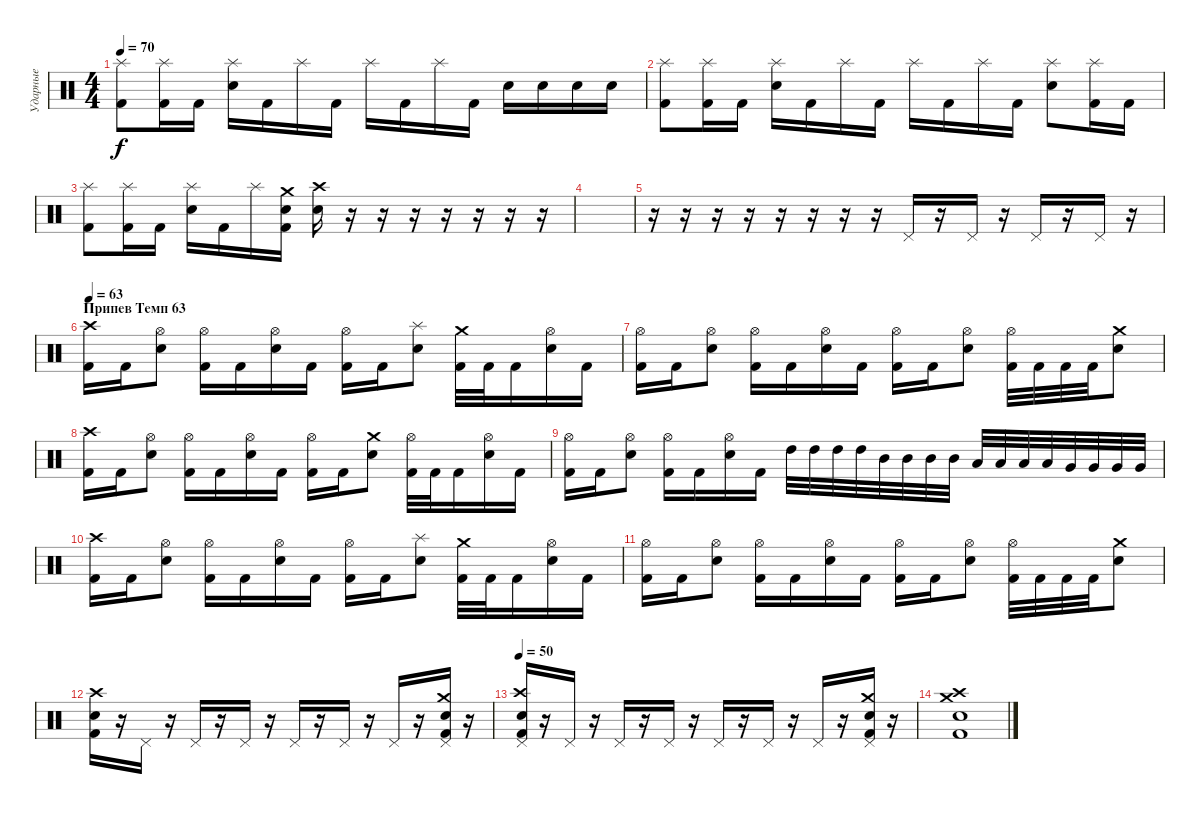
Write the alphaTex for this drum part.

\track ("Ударные" "Ударные") {instrument percussion}
\staff {score}
\articulation defaults
\ts (4 4)
\tempo 70
\clef neutral
\ks c
("Kick (hit) 2" "Splash (hit)").8{dy f} ("Kick (hit) 2" "Splash (hit)").16 "Kick (hit) 2".16 ("Snare (hit) 2" "Splash (hit)").16 "Kick (hit) 2".16 "Splash (hit)".16 "Kick (hit) 2".16 "Splash (hit)".16 "Kick (hit) 2".16 "Splash (hit)".16 "Kick (hit) 2".16 "Snare (hit) 2".16 "Snare (hit) 2".16 "Snare (hit) 2".16 "Snare (hit) 2".16 |
("Kick (hit) 2" "Splash (hit)").8 ("Kick (hit) 2" "Splash (hit)").16 "Kick (hit) 2".16 ("Snare (hit) 2" "Splash (hit)").16 "Kick (hit) 2".16 "Splash (hit)".16 "Kick (hit) 2".16 "Splash (hit)".16 "Kick (hit) 2".16 "Splash (hit)".16 "Kick (hit) 2".16 ("Snare (hit) 2" "Splash (hit)").8 ("Kick (hit) 2" "Splash (hit)").16 "Kick (hit) 2".16 |
("Kick (hit) 2" "Splash (hit)").8 ("Kick (hit) 2" "Splash (hit)").16 "Kick (hit) 2".16 ("Snare (hit) 2" "Splash (hit)").16 "Kick (hit) 2".16 "Splash (hit)".16 ("Kick (hit) 2" "Snare (hit) 2" "Crash medium (hit)").16 ("Snare (hit) 2" "Crash high (hit)").16 r.16 r.16 r.16 r.16 r.16 r.16 r.16 |
|
r.16 r.16 r.16 r.16 r.16 r.16 r.16 r.16 "Pedal Hi-Hat (hit)".16{volume 16} r.16 "Pedal Hi-Hat (hit)".16 r.16 "Pedal Hi-Hat (hit)".16 r.16 "Pedal Hi-Hat (hit)".16 r.16 |
\section ("" "Припев Темп 63")
\tempo 63
("Kick (hit) 2" "Crash high (hit)").16 "Kick (hit) 2".16 ("Snare (hit) 2" "Hi-Hat (open)").8 ("Kick (hit) 2" "Hi-Hat (open)").16 "Kick (hit) 2".16 ("Snare (hit) 2" "Hi-Hat (open)").16 "Kick (hit) 2".16 ("Kick (hit) 2" "Hi-Hat (open)").16 "Kick (hit) 2".16 ("Snare (hit) 2" "Splash (hit)").8 ("Kick (hit) 2" "Crash medium (hit)").32 "Kick (hit) 2".32 "Kick (hit) 2".16 ("Snare (hit) 2" "Hi-Hat (open)").16 "Kick (hit) 2".16 |
("Kick (hit) 2" "Hi-Hat (open)").16 "Kick (hit) 2".16 ("Snare (hit) 2" "Hi-Hat (open)").8 ("Kick (hit) 2" "Hi-Hat (open)").16 "Kick (hit) 2".16 ("Snare (hit) 2" "Hi-Hat (open)").16 "Kick (hit) 2".16 ("Kick (hit) 2" "Hi-Hat (open)").16 "Kick (hit) 2".16 ("Snare (hit) 2" "Hi-Hat (open)").8 ("Kick (hit) 2" "Hi-Hat (open)").32 "Kick (hit) 2".32 "Kick (hit) 2".32 "Kick (hit) 2".32 ("Snare (hit) 2" "Crash medium (hit)").8 |
("Kick (hit) 2" "Crash high (hit)").16 "Kick (hit) 2".16 ("Snare (hit) 2" "Hi-Hat (open)").8 ("Kick (hit) 2" "Hi-Hat (open)").16 "Kick (hit) 2".16 ("Snare (hit) 2" "Hi-Hat (open)").16 "Kick (hit) 2".16 ("Kick (hit) 2" "Hi-Hat (open)").16 "Kick (hit) 2".16 ("Snare (hit) 2" "Crash medium (hit)").8 ("Kick (hit) 2" "Hi-Hat (open)").32 "Kick (hit) 2".32 "Kick (hit) 2".16 ("Snare (hit) 2" "Hi-Hat (open)").16 "Kick (hit) 2".16 |
("Kick (hit) 2" "Hi-Hat (open)").16 "Kick (hit) 2".16 ("Snare (hit) 2" "Hi-Hat (open)").8 ("Kick (hit) 2" "Hi-Hat (open)").16 "Kick (hit) 2".16 ("Snare (hit) 2" "Hi-Hat (open)").16 "Kick (hit) 2".16 "High Tom (hit)".32 "High Tom (hit)".32 "High Tom (hit)".32 "High Tom (hit)".32 "Mid Tom (hit)".32 "Mid Tom (hit)".32 "Mid Tom (hit)".32 "Mid Tom (hit)".32 "Low Tom (hit)".32 "Low Tom (hit)".32 "Low Tom (hit)".32 "Low Tom (hit)".32 "Very Low Tom (hit)".32 "Very Low Tom (hit)".32 "Very Low Tom (hit)".32 "Very Low Tom (hit)".32 |
("Kick (hit) 2" "Crash high (hit)").16 "Kick (hit) 2".16 ("Snare (hit) 2" "Hi-Hat (open)").8 ("Kick (hit) 2" "Hi-Hat (open)").16 "Kick (hit) 2".16 ("Snare (hit) 2" "Hi-Hat (open)").16 "Kick (hit) 2".16 ("Kick (hit) 2" "Hi-Hat (open)").16 "Kick (hit) 2".16 ("Snare (hit) 2" "Splash (hit)").8 ("Kick (hit) 2" "Crash medium (hit)").32 "Kick (hit) 2".32 "Kick (hit) 2".16 ("Snare (hit) 2" "Hi-Hat (open)").16 "Kick (hit) 2".16 |
("Kick (hit) 2" "Hi-Hat (open)").16 "Kick (hit) 2".16 ("Snare (hit) 2" "Hi-Hat (open)").8 ("Kick (hit) 2" "Hi-Hat (open)").16 "Kick (hit) 2".16 ("Snare (hit) 2" "Hi-Hat (open)").16 "Kick (hit) 2".16 ("Kick (hit) 2" "Hi-Hat (open)").16 "Kick (hit) 2".16 ("Snare (hit) 2" "Hi-Hat (open)").8 ("Kick (hit) 2" "Hi-Hat (open)").32 "Kick (hit) 2".32 "Kick (hit) 2".32 "Kick (hit) 2".32 ("Snare (hit) 2" "Crash medium (hit)").8 |
("Kick (hit) 2" "Snare (hit) 2" "Crash high (hit)").16 r.16 "Pedal Hi-Hat (hit)".16 r.16 "Pedal Hi-Hat (hit)".16 r.16 "Pedal Hi-Hat (hit)".16 r.16 "Pedal Hi-Hat (hit)".16 r.16 "Pedal Hi-Hat (hit)".16 r.16 "Pedal Hi-Hat (hit)".16 r.16 ("Kick (hit) 2" "Snare (hit) 2" "Pedal Hi-Hat (hit)" "Crash medium (hit)").16 r.16 |
\tempo 50
("Kick (hit) 2" "Snare (hit) 2" "Pedal Hi-Hat (hit)" "Crash high (hit)").16 r.16 "Pedal Hi-Hat (hit)".16 r.16 "Pedal Hi-Hat (hit)".16 r.16 "Pedal Hi-Hat (hit)".16 r.16 "Pedal Hi-Hat (hit)".16 r.16 "Pedal Hi-Hat (hit)".16 r.16 "Pedal Hi-Hat (hit)".16 r.16 ("Kick (hit) 2" "Snare (hit) 2" "Pedal Hi-Hat (hit)" "Crash medium (hit)").16 r.16 |
("Kick (hit) 2" "Snare (hit) 2" "Crash medium (hit)" "Crash high (hit)").1
